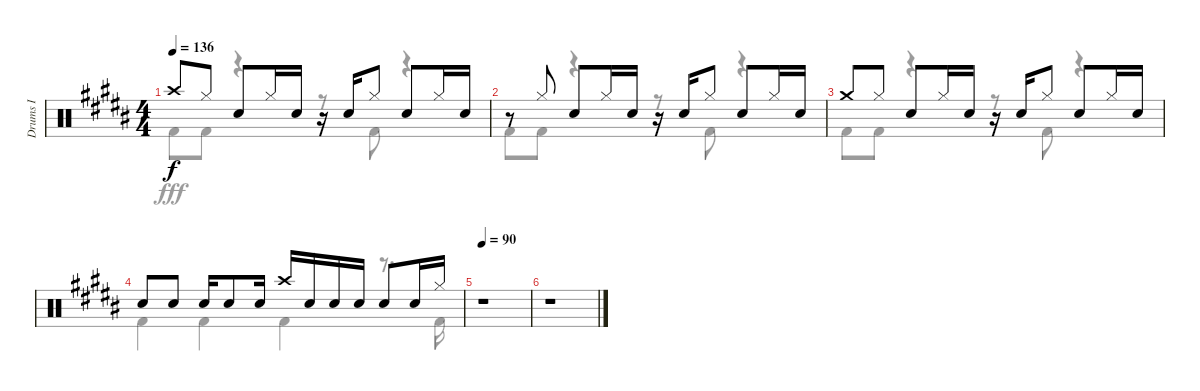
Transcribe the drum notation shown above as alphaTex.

\track ("Drums I" "Drums I") {instrument percussion}
\staff {score}
\articulation defaults
\voice
\ts (4 4)
\tempo 136
\clef neutral
\ks b "Crash high (hit)".8{dy f} "Hi-Hat (closed)".8 "Snare (hit) 2".8 "Hi-Hat (closed)".16 "Snare (hit) 2".16
r.16 "Snare (hit) 2".16 "Hi-Hat (closed)".8 "Snare (hit) 2".8 "Hi-Hat (closed)".16 "Snare (hit) 2".16 |
r.8 "Hi-Hat (closed)".8 "Snare (hit) 2".8 "Hi-Hat (closed)".16 "Snare (hit) 2".16 r.16 "Snare (hit) 2".16 "Hi-Hat (closed)".8 "Snare (hit) 2".8 "Hi-Hat (closed)".16 "Snare (hit) 2".16 |
"Crash medium (hit)".8 "Hi-Hat (closed)".8 "Snare (hit) 2".8 "Hi-Hat (closed)".16 "Snare (hit) 2".16 r.16 "Snare (hit) 2".16 "Hi-Hat (closed)".8 "Snare (hit) 2".8 "Hi-Hat (closed)".16 "Snare (hit) 2".16 |
"Snare (hit) 2".8 "Snare (hit) 2".8 "Snare (hit) 2".16 "Snare (hit) 2".8 "Snare (hit) 2".16 "Crash high (hit)".16 "Snare (hit) 2".16 "Snare (hit) 2".16 "Snare (hit) 2".16 "Snare (hit) 2".8 "Snare (hit) 2".16 "Hi-Hat (closed)".16 |
\tempo 90
r.1 |
r.1
\voice
\clef neutral
\ottava regular
\simile none
\ks b "Kick (hit) 2".8{dy fff} "Kick (hit) 2".8
r.4 r.8 "Kick (hit) 2".8 r.4 |
"Kick (hit) 2".8 "Kick (hit) 2".8 r.4 r.8 "Kick (hit) 2".8 r.4 |
"Kick (hit) 2".8 "Kick (hit) 2".8 r.4 r.8 "Kick (hit) 2".8 r.4 |
"Kick (hit) 2".4 "Kick (hit) 2".4 "Kick (hit) 2".4 r.8{d} "Kick (hit) 2".16 |
r.1 |
r.1
